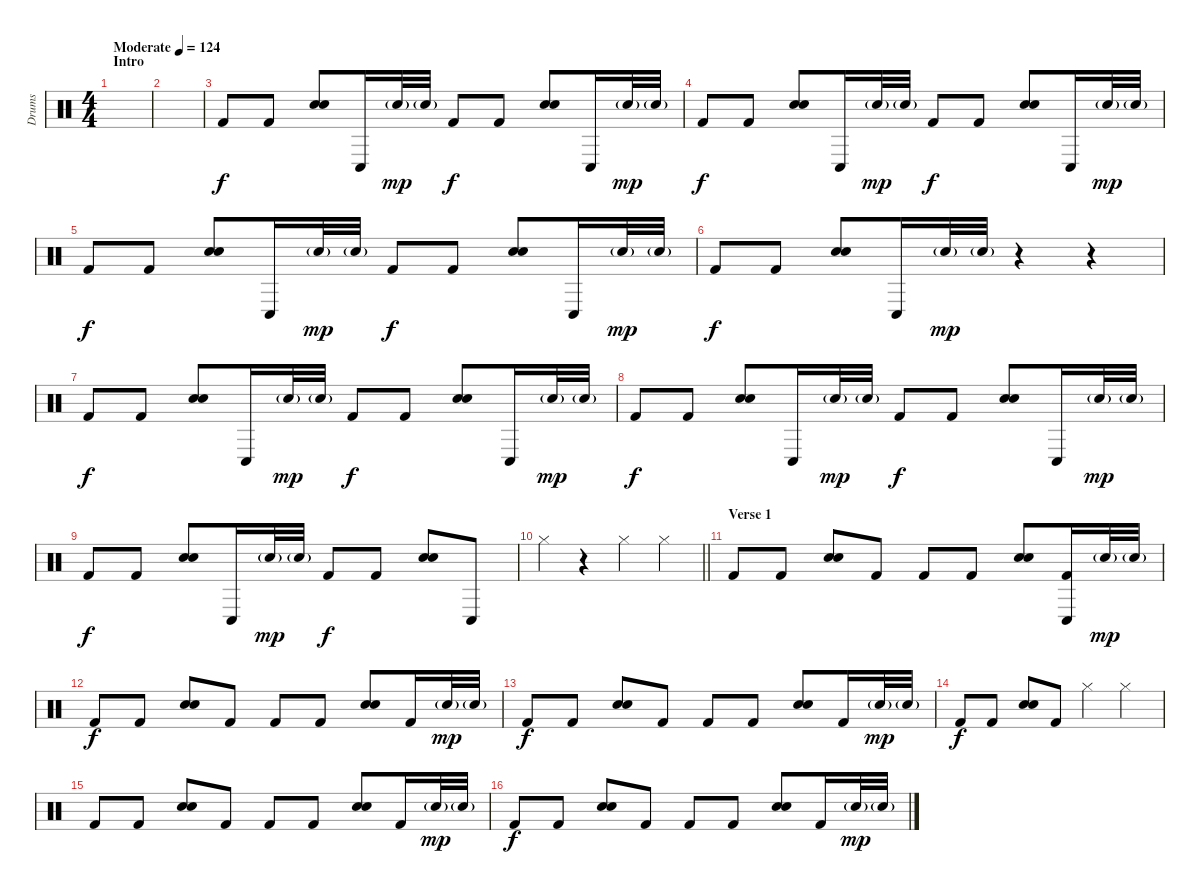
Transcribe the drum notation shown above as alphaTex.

\track ("Drums" "Drums") {instrument percussion}
\staff {score}
\articulation defaults
\ts (4 4)
\section ("" "Intro")
\tempo (124 "Moderate")
\clef neutral
\ks c
|
|
"Kick (hit) 2".8 "Kick (hit) 2".8 ("Snare (hit) 2" "Electric Snare (hit)").8 "Conga low (hit)".16 "Electric Snare (hit)"{g}.32{dy mp} "Electric Snare (hit)"{g}.32 "Kick (hit) 2".8{dy f} "Kick (hit) 2".8 ("Snare (hit) 2" "Electric Snare (hit)").8 "Conga low (hit)".16 "Electric Snare (hit)"{g}.32{dy mp} "Electric Snare (hit)"{g}.32 |
"Kick (hit) 2".8{dy f} "Kick (hit) 2".8 ("Snare (hit) 2" "Electric Snare (hit)").8 "Conga low (hit)".16 "Electric Snare (hit)"{g}.32{dy mp} "Electric Snare (hit)"{g}.32 "Kick (hit) 2".8{dy f} "Kick (hit) 2".8 ("Snare (hit) 2" "Electric Snare (hit)").8 "Conga low (hit)".16 "Electric Snare (hit)"{g}.32{dy mp} "Electric Snare (hit)"{g}.32 |
"Kick (hit) 2".8{dy f} "Kick (hit) 2".8 ("Snare (hit) 2" "Electric Snare (hit)").8 "Conga low (hit)".16 "Electric Snare (hit)"{g}.32{dy mp} "Electric Snare (hit)"{g}.32 "Kick (hit) 2".8{dy f} "Kick (hit) 2".8 ("Snare (hit) 2" "Electric Snare (hit)").8 "Conga low (hit)".16 "Electric Snare (hit)"{g}.32{dy mp} "Electric Snare (hit)"{g}.32 |
"Kick (hit) 2".8{dy f} "Kick (hit) 2".8 ("Snare (hit) 2" "Electric Snare (hit)").8 "Conga low (hit)".16 "Electric Snare (hit)"{g}.32{dy mp} "Electric Snare (hit)"{g}.32 r.4 r.4 |
"Kick (hit) 2".8{dy f} "Kick (hit) 2".8 ("Snare (hit) 2" "Electric Snare (hit)").8 "Conga low (hit)".16 "Electric Snare (hit)"{g}.32{dy mp} "Electric Snare (hit)"{g}.32 "Kick (hit) 2".8{dy f} "Kick (hit) 2".8 ("Snare (hit) 2" "Electric Snare (hit)").8 "Conga low (hit)".16 "Electric Snare (hit)"{g}.32{dy mp} "Electric Snare (hit)"{g}.32 |
"Kick (hit) 2".8{dy f} "Kick (hit) 2".8 ("Snare (hit) 2" "Electric Snare (hit)").8 "Conga low (hit)".16 "Electric Snare (hit)"{g}.32{dy mp} "Electric Snare (hit)"{g}.32 "Kick (hit) 2".8{dy f} "Kick (hit) 2".8 ("Snare (hit) 2" "Electric Snare (hit)").8 "Conga low (hit)".16 "Electric Snare (hit)"{g}.32{dy mp} "Electric Snare (hit)"{g}.32 |
"Kick (hit) 2".8{dy f} "Kick (hit) 2".8 ("Snare (hit) 2" "Electric Snare (hit)").8 "Conga low (hit)".16 "Electric Snare (hit)"{g}.32{dy mp} "Electric Snare (hit)"{g}.32 "Kick (hit) 2".8{dy f} "Kick (hit) 2".8 ("Snare (hit) 2" "Electric Snare (hit)").8 "Conga low (hit)".8 |
\barLineRight lightlight "Hi-Hat (closed)".4
r.4 "Hi-Hat (closed)".4 "Hi-Hat (closed)".4 |
\section ("" "Verse 1")
"Kick (hit) 2".8 "Kick (hit) 2".8 ("Snare (hit) 2" "Electric Snare (hit)").8 "Kick (hit) 2".8 "Kick (hit) 2".8 "Kick (hit) 2".8 ("Snare (hit) 2" "Electric Snare (hit)").8 ("Conga low (hit)" "Kick (hit) 2").16 "Electric Snare (hit)"{g}.32{dy mp} "Electric Snare (hit)"{g}.32 |
"Kick (hit) 2".8{dy f} "Kick (hit) 2".8 ("Snare (hit) 2" "Electric Snare (hit)").8 "Kick (hit) 2".8 "Kick (hit) 2".8 "Kick (hit) 2".8 ("Snare (hit) 2" "Electric Snare (hit)").8 "Kick (hit) 2".16 "Electric Snare (hit)"{g}.32{dy mp} "Electric Snare (hit)"{g}.32 |
"Kick (hit) 2".8{dy f} "Kick (hit) 2".8 ("Snare (hit) 2" "Electric Snare (hit)").8 "Kick (hit) 2".8 "Kick (hit) 2".8 "Kick (hit) 2".8 ("Snare (hit) 2" "Electric Snare (hit)").8 "Kick (hit) 2".16 "Electric Snare (hit)"{g}.32{dy mp} "Electric Snare (hit)"{g}.32 |
"Kick (hit) 2".8{dy f} "Kick (hit) 2".8 ("Snare (hit) 2" "Electric Snare (hit)").8 "Kick (hit) 2".8 "Hi-Hat (closed)".4 "Hi-Hat (closed)".4 |
"Kick (hit) 2".8 "Kick (hit) 2".8 ("Snare (hit) 2" "Electric Snare (hit)").8 "Kick (hit) 2".8 "Kick (hit) 2".8 "Kick (hit) 2".8 ("Snare (hit) 2" "Electric Snare (hit)").8 "Kick (hit) 2".16 "Electric Snare (hit)"{g}.32{dy mp} "Electric Snare (hit)"{g}.32 |
"Kick (hit) 2".8{dy f} "Kick (hit) 2".8 ("Snare (hit) 2" "Electric Snare (hit)").8 "Kick (hit) 2".8 "Kick (hit) 2".8 "Kick (hit) 2".8 ("Snare (hit) 2" "Electric Snare (hit)").8 "Kick (hit) 2".16 "Electric Snare (hit)"{g}.32{dy mp} "Electric Snare (hit)"{g}.32
